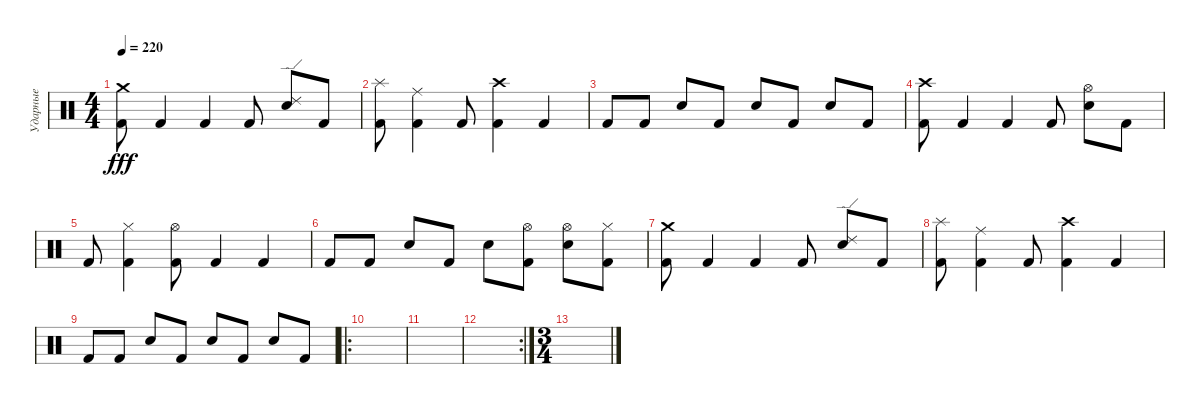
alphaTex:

\track ("Ударные" "Ударные") {instrument percussion}
\staff {score}
\articulation defaults
\ts (4 4)
\tempo 220
\clef neutral
\ks c
("Kick (hit) 2" "Crash medium (hit)").8{dy fff} "Kick (hit) 2".4 "Kick (hit) 2".4 "Kick (hit) 2".8 ("Snare (hit) 2" "Ride (edge) 2").8 "Kick (hit) 2".8 |
("Kick (hit) 2" "Splash (hit)").8 ("Kick (hit) 2" "Ride (middle)").4 "Kick (hit) 2".8 ("Kick (hit) 2" "Crash high (hit)").4 "Kick (hit) 2".4 |
"Kick (hit) 2".8 "Kick (hit) 2".8 "Snare (hit) 2".8 "Kick (hit) 2".8 "Snare (hit) 2".8 "Kick (hit) 2".8 "Snare (hit) 2".8 "Kick (hit) 2".8 |
("Kick (hit) 2" "Crash high (hit)").8 "Kick (hit) 2".4 "Kick (hit) 2".4 "Kick (hit) 2".8 ("Snare (hit) 2" "Hi-Hat (open)").8 "Kick (hit) 2".8 |
"Kick (hit) 2".8 ("Kick (hit) 2" "Hi-Hat (closed)").4 ("Kick (hit) 2" "Hi-Hat (open)").8 "Kick (hit) 2".4 "Kick (hit) 2".4 |
"Kick (hit) 2".8 "Kick (hit) 2".8 "Snare (hit) 2".8 "Kick (hit) 2".8 "Snare (hit) 2".8 ("Kick (hit) 2" "Hi-Hat (open)").8 ("Snare (hit) 2" "Hi-Hat (open)").8 ("Kick (hit) 2" "Hi-Hat (closed)").8 |
("Kick (hit) 2" "Crash medium (hit)").8 "Kick (hit) 2".4 "Kick (hit) 2".4 "Kick (hit) 2".8 ("Snare (hit) 2" "Ride (edge) 2").8 "Kick (hit) 2".8 |
("Kick (hit) 2" "Splash (hit)").8 ("Kick (hit) 2" "Ride (middle)").4 "Kick (hit) 2".8 ("Kick (hit) 2" "Crash high (hit)").4 "Kick (hit) 2".4 |
"Kick (hit) 2".8 "Kick (hit) 2".8 "Snare (hit) 2".8 "Kick (hit) 2".8 "Snare (hit) 2".8 "Kick (hit) 2".8 "Snare (hit) 2".8 "Kick (hit) 2".8 |
\ro
|
|
\rc 2
|
\ts (3 4)
